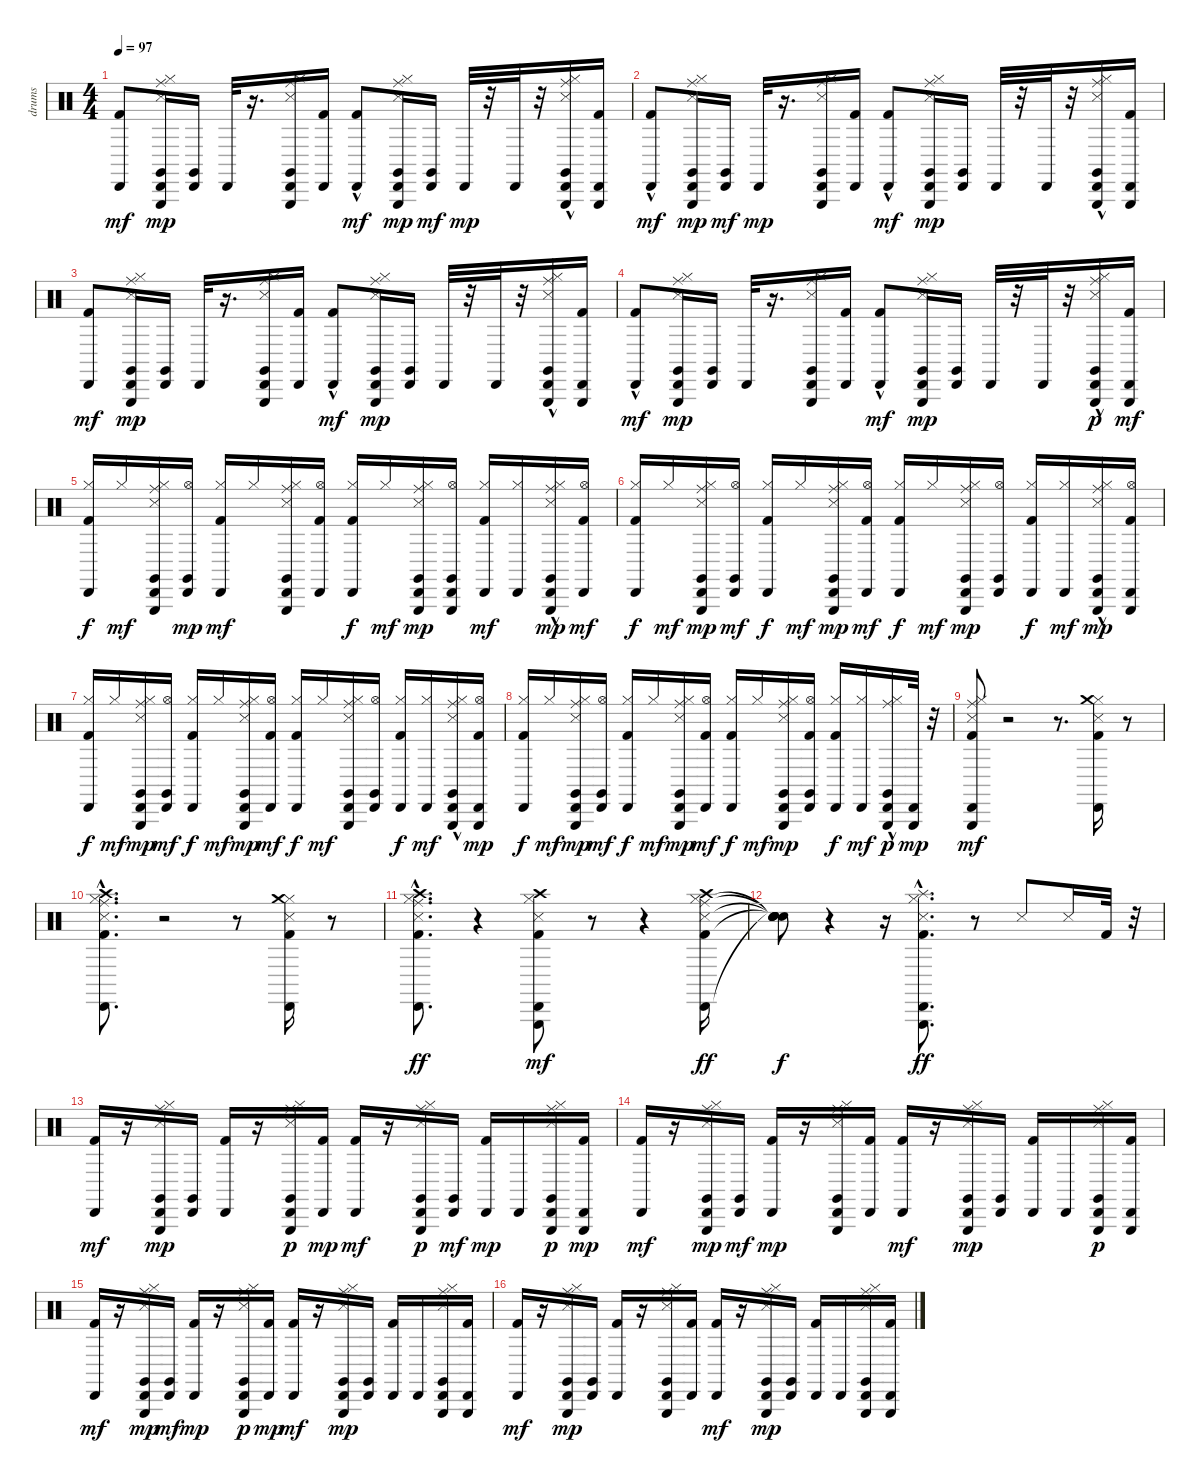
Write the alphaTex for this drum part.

\track ("drums" "drums") {instrument percussion}
\staff {score}
\articulation defaults
\ts (4 4)
\tempo 97
\clef neutral
\ks c
("Kick (hit) 2" "Cabasa (hit)").8{dy mf} ("Snare (side stick) 3" "Hi-Hat (closed)" "Cabasa (hit)" "Claves (hit)" "Ride (middle)" "Triangle (hit)").16{dy mp} ("Cabasa (hit)" "Claves (hit)").16 "Cabasa (hit)".32 r.16{d} ("Snare (side stick) 3" "Hi-Hat (closed)" "Cabasa (hit)" "Claves (hit)" "Ride (middle)" "Triangle (hit)").16 ("Kick (hit) 2" "Cabasa (hit)").16 ("Kick (hit) 2"{hac} "Cabasa (hit)").8{dy mf} ("Snare (side stick) 3" "Hi-Hat (closed)" "Cabasa (hit)" "Claves (hit)" "Ride (middle)" "Triangle (hit)").16{dy mp} ("Cabasa (hit)" "Claves (hit)").16{dy mf} "Cabasa (hit)".32{dy mp} r.32 "Cabasa (hit)".32 r.32 ("Snare (side stick) 3" "Hi-Hat (closed)" "Cabasa (hit)" "Claves (hit)" "Ride (middle)"{hac} "Triangle (hit)").16 ("Kick (hit) 2" "Cabasa (hit)" "Triangle (hit)").16 |
("Kick (hit) 2"{hac} "Cabasa (hit)").8{dy mf} ("Snare (side stick) 3" "Hi-Hat (closed)" "Cabasa (hit)" "Claves (hit)" "Ride (middle)" "Triangle (hit)").16{dy mp} ("Cabasa (hit)" "Claves (hit)").16{dy mf} "Cabasa (hit)".32{dy mp} r.16{d} ("Snare (side stick) 3" "Hi-Hat (closed)" "Cabasa (hit)" "Claves (hit)" "Ride (middle)" "Triangle (hit)").16 ("Kick (hit) 2" "Cabasa (hit)").16 ("Kick (hit) 2"{hac} "Cabasa (hit)").8{dy mf} ("Snare (side stick) 3" "Hi-Hat (closed)" "Cabasa (hit)" "Claves (hit)" "Ride (middle)" "Triangle (hit)").16{dy mp} ("Cabasa (hit)" "Claves (hit)").16 "Cabasa (hit)".32 r.32 "Cabasa (hit)".32 r.32 ("Snare (side stick) 3" "Hi-Hat (closed)" "Cabasa (hit)" "Claves (hit)" "Ride (middle)"{hac} "Triangle (hit)").16 ("Kick (hit) 2" "Cabasa (hit)" "Triangle (hit)").16 |
("Kick (hit) 2" "Cabasa (hit)").8{dy mf} ("Snare (side stick) 3" "Hi-Hat (closed)" "Cabasa (hit)" "Claves (hit)" "Ride (middle)" "Triangle (hit)").16{dy mp} ("Cabasa (hit)" "Claves (hit)").16 "Cabasa (hit)".32 r.16{d} ("Snare (side stick) 3" "Hi-Hat (closed)" "Cabasa (hit)" "Claves (hit)" "Ride (middle)" "Triangle (hit)").16 ("Kick (hit) 2" "Cabasa (hit)").16 ("Kick (hit) 2"{hac} "Cabasa (hit)").8{dy mf} ("Snare (side stick) 3" "Hi-Hat (closed)" "Cabasa (hit)" "Claves (hit)" "Ride (middle)" "Triangle (hit)").16{dy mp} ("Cabasa (hit)" "Claves (hit)").16 "Cabasa (hit)".32 r.32 "Cabasa (hit)".32 r.32 ("Snare (side stick) 3" "Hi-Hat (closed)" "Cabasa (hit)" "Claves (hit)" "Ride (middle)"{hac} "Triangle (hit)").16 ("Kick (hit) 2" "Cabasa (hit)" "Triangle (hit)").16 |
("Kick (hit) 2"{hac} "Cabasa (hit)").8{dy mf} ("Snare (side stick) 3" "Hi-Hat (closed)" "Cabasa (hit)" "Claves (hit)" "Ride (middle)" "Triangle (hit)").16{dy mp} ("Cabasa (hit)" "Claves (hit)").16 "Cabasa (hit)".32 r.16{d} ("Snare (side stick) 3" "Hi-Hat (closed)" "Cabasa (hit)" "Claves (hit)" "Ride (middle)" "Triangle (hit)").16 ("Kick (hit) 2" "Cabasa (hit)").16 ("Kick (hit) 2"{hac} "Cabasa (hit)").8{dy mf} ("Snare (side stick) 3" "Hi-Hat (closed)" "Cabasa (hit)" "Claves (hit)" "Ride (middle)" "Triangle (hit)").16{dy mp} ("Cabasa (hit)" "Claves (hit)").16 "Cabasa (hit)".32 r.32 "Cabasa (hit)".32 r.32 ("Snare (side stick) 3" "Hi-Hat (closed)" "Cabasa (hit)" "Claves (hit)" "Ride (middle)"{hac} "Triangle (hit)").16{dy p} ("Kick (hit) 2" "Cabasa (hit)" "Triangle (hit)").16{dy mf} |
("Kick (hit) 2" "Hi-Hat (closed)" "Cabasa (hit)").16{dy f} "Hi-Hat (closed)".16{dy mf} ("Snare (side stick) 3" "Hi-Hat (closed)" "Cabasa (hit)" "Claves (hit)" "Ride (middle)" "Triangle (hit)").16 ("Hi-Hat (open)" "Cabasa (hit)" "Claves (hit)").16{dy mp} ("Kick (hit) 2" "Hi-Hat (closed)" "Cabasa (hit)").16{dy mf} "Hi-Hat (closed)".16 ("Triangle (hit)" "Snare (side stick) 3" "Hi-Hat (closed)" "Cabasa (hit)" "Claves (hit)" "Ride (middle)").16 ("Kick (hit) 2" "Hi-Hat (open)" "Cabasa (hit)").16 ("Kick (hit) 2" "Hi-Hat (closed)" "Cabasa (hit)").16{dy f} "Hi-Hat (closed)".16{dy mf} ("Snare (side stick) 3" "Hi-Hat (closed)" "Cabasa (hit)" "Claves (hit)" "Ride (middle)" "Triangle (hit)").16{dy mp} ("Hi-Hat (open)" "Cabasa (hit)" "Claves (hit)" "Triangle (hit)").16 ("Kick (hit) 2" "Hi-Hat (closed)" "Cabasa (hit)").16{dy mf} ("Hi-Hat (closed)" "Cabasa (hit)").16 ("Snare (side stick) 3" "Hi-Hat (closed)" "Cabasa (hit)" "Claves (hit)" "Ride (middle)"{hac} "Triangle (hit)").16{dy mp} ("Kick (hit) 2" "Hi-Hat (open)" "Cabasa (hit)").16{dy mf} |
("Kick (hit) 2" "Hi-Hat (closed)" "Cabasa (hit)").16{dy f} "Hi-Hat (closed)".16{dy mf} ("Snare (side stick) 3" "Hi-Hat (closed)" "Cabasa (hit)" "Claves (hit)" "Ride (middle)" "Triangle (hit)").16{dy mp} ("Claves (hit)" "Hi-Hat (open)" "Cabasa (hit)").16{dy mf} ("Kick (hit) 2" "Hi-Hat (closed)" "Cabasa (hit)").16{dy f} "Hi-Hat (closed)".16{dy mf} ("Snare (side stick) 3" "Hi-Hat (closed)" "Cabasa (hit)" "Claves (hit)" "Ride (middle)" "Triangle (hit)").16{dy mp} ("Kick (hit) 2" "Hi-Hat (open)" "Cabasa (hit)").16{dy mf} ("Kick (hit) 2" "Hi-Hat (closed)" "Cabasa (hit)").16{dy f} "Hi-Hat (closed)".16{dy mf} ("Snare (side stick) 3" "Hi-Hat (closed)" "Cabasa (hit)" "Claves (hit)" "Ride (middle)" "Triangle (hit)").16{dy mp} ("Hi-Hat (open)" "Cabasa (hit)" "Claves (hit)").16 ("Kick (hit) 2" "Hi-Hat (closed)" "Cabasa (hit)").16{dy f} ("Hi-Hat (closed)" "Cabasa (hit)").16{dy mf} ("Snare (side stick) 3" "Hi-Hat (closed)" "Cabasa (hit)" "Claves (hit)" "Ride (middle)"{hac} "Triangle (hit)").16{dy mp} ("Kick (hit) 2" "Hi-Hat (open)" "Cabasa (hit)" "Triangle (hit)").16 |
("Kick (hit) 2" "Hi-Hat (closed)" "Cabasa (hit)").16{dy f} "Hi-Hat (closed)".16{dy mf} ("Snare (side stick) 3" "Hi-Hat (closed)" "Cabasa (hit)" "Claves (hit)" "Ride (middle)" "Triangle (hit)").16{dy mp} ("Hi-Hat (open)" "Cabasa (hit)" "Claves (hit)").16{dy mf} ("Kick (hit) 2" "Hi-Hat (closed)" "Cabasa (hit)").16{dy f} "Hi-Hat (closed)".16{dy mf} ("Snare (side stick) 3" "Hi-Hat (closed)" "Cabasa (hit)" "Claves (hit)" "Ride (middle)" "Triangle (hit)").16{dy mp} ("Kick (hit) 2" "Hi-Hat (open)" "Cabasa (hit)").16{dy mf} ("Kick (hit) 2" "Hi-Hat (closed)" "Cabasa (hit)").16{dy f} "Hi-Hat (closed)".16{dy mf} ("Triangle (hit)" "Snare (side stick) 3" "Hi-Hat (closed)" "Cabasa (hit)" "Claves (hit)" "Ride (middle)").16 ("Claves (hit)" "Hi-Hat (open)" "Cabasa (hit)").16 ("Kick (hit) 2" "Hi-Hat (closed)" "Cabasa (hit)").16{dy f} ("Hi-Hat (closed)" "Cabasa (hit)").16{dy mf} ("Snare (side stick) 3" "Hi-Hat (closed)" "Cabasa (hit)" "Claves (hit)" "Ride (middle)"{hac} "Triangle (hit)").16 ("Kick (hit) 2" "Hi-Hat (open)" "Cabasa (hit)" "Triangle (hit)").16{dy mp} |
("Kick (hit) 2" "Hi-Hat (closed)" "Cabasa (hit)").16{dy f} "Hi-Hat (closed)".16{dy mf} ("Claves (hit)" "Snare (side stick) 3" "Hi-Hat (closed)" "Cabasa (hit)" "Ride (middle)" "Triangle (hit)").16{dy mp} ("Claves (hit)" "Hi-Hat (open)" "Cabasa (hit)").16{dy mf} ("Kick (hit) 2" "Hi-Hat (closed)" "Cabasa (hit)").16{dy f} "Hi-Hat (closed)".16{dy mf} ("Snare (side stick) 3" "Hi-Hat (closed)" "Cabasa (hit)" "Claves (hit)" "Ride (middle)" "Triangle (hit)").16{dy mp} ("Kick (hit) 2" "Hi-Hat (open)" "Cabasa (hit)").16{dy mf} ("Kick (hit) 2" "Hi-Hat (closed)" "Cabasa (hit)").16{dy f} "Hi-Hat (closed)".16{dy mf} ("Snare (side stick) 3" "Hi-Hat (closed)" "Cabasa (hit)" "Claves (hit)" "Ride (middle)" "Triangle (hit)").16{dy mp} ("Kick (hit) 2" "Hi-Hat (open)" "Cabasa (hit)" "Claves (hit)").16 ("Kick (hit) 2" "Hi-Hat (closed)" "Cabasa (hit)").16{dy f} ("Hi-Hat (closed)" "Cabasa (hit)").16{dy mf} ("Claves (hit)" "Hi-Hat (closed)" "Cabasa (hit)" "Ride (middle)"{hac} "Triangle (hit)").16{dy p} ("Cabasa (hit)" "Triangle (hit)").32{dy mp} r.32 |
("Kick (hit) 2" "Snare (side stick) 3" "Hi-Hat (closed)" "Cabasa (hit)" "Ride (middle)" "Triangle (hit)").8{dy mf} r.2 r.8{d} ("Snare (side stick) 3" "Kick (hit) 2" "Hi-Hat (closed)" "Cabasa (hit)" "Crash medium (hit)").16 r.8 |
("Kick (hit) 2" "Snare (side stick) 3" "Hi-Hat (closed)" "Cabasa (hit)" "Ride (middle)" "Crash high (hit)"{hac}).8{d} r.2 r.8 ("Kick (hit) 2" "Snare (side stick) 3" "Hi-Hat (closed)" "Cabasa (hit)" "Crash medium (hit)").16 r.8 |
("Kick (hit) 2" "Snare (side stick) 3" "Hi-Hat (closed)" "Cabasa (hit)" "Ride (middle)" "Crash high (hit)"{hac}).8{d dy ff} r.4 ("Kick (hit) 2" "Snare (side stick) 3" "Hi-Hat (closed)" "Cabasa (hit)" "Crash high (hit)" "Triangle (hit)").8{dy mf} r.8 r.4 ("Ride (middle)" "Kick (hit) 2" "Snare (side stick) 3" "Hi-Hat (closed)" "Cabasa (hit)" "Crash high (hit)").16{dy ff} |
("Snare (hit)"{t} "Snare (hit)"{t} "Snare (hit)"{t} "Snare (hit)"{t} "Snare (hit)"{t}).8{dy f} r.4 r.16 ("Kick (hit) 2"{hac} "Snare (side stick) 3" "Hi-Hat (closed)" "Cabasa (hit)" "Splash (hit)"{hac} "Triangle (hit)").8{d dy ff} r.8 "Snare (side stick) 3".8 "Snare (side stick) 3".16 "Kick (hit) 2".32 r.32 |
("Kick (hit) 2" "Cabasa (hit)").16{dy mf} r.16 ("Snare (side stick) 3" "Hi-Hat (closed)" "Cabasa (hit)" "Claves (hit)" "Ride (middle)" "Triangle (hit)").16{dy mp} ("Cabasa (hit)" "Claves (hit)").16 ("Kick (hit) 2" "Cabasa (hit)").16 r.16 ("Snare (side stick) 3" "Hi-Hat (closed)" "Cabasa (hit)" "Claves (hit)" "Ride (middle)" "Triangle (hit)").16{dy p} ("Kick (hit) 2" "Cabasa (hit)").16{dy mp} ("Kick (hit) 2" "Cabasa (hit)").16{dy mf} r.16 ("Snare (side stick) 3" "Hi-Hat (closed)" "Cabasa (hit)" "Claves (hit)" "Ride (middle)" "Triangle (hit)").16{dy p} ("Cabasa (hit)" "Claves (hit)").16{dy mf} ("Kick (hit) 2" "Cabasa (hit)").16{dy mp} "Cabasa (hit)".16 ("Snare (side stick) 3" "Hi-Hat (closed)" "Cabasa (hit)" "Claves (hit)" "Ride (middle)" "Triangle (hit)").16{dy p} ("Kick (hit) 2" "Cabasa (hit)" "Triangle (hit)").16{dy mp} |
("Kick (hit) 2" "Cabasa (hit)").16{dy mf} r.16 ("Snare (side stick) 3" "Hi-Hat (closed)" "Cabasa (hit)" "Claves (hit)" "Ride (middle)" "Triangle (hit)").16{dy mp} ("Cabasa (hit)" "Claves (hit)").16{dy mf} ("Kick (hit) 2" "Cabasa (hit)").16{dy mp} r.16 ("Snare (side stick) 3" "Hi-Hat (closed)" "Cabasa (hit)" "Claves (hit)" "Ride (middle)" "Triangle (hit)").16 ("Kick (hit) 2" "Cabasa (hit)").16 ("Kick (hit) 2" "Cabasa (hit)").16{dy mf} r.16 ("Snare (side stick) 3" "Hi-Hat (closed)" "Cabasa (hit)" "Claves (hit)" "Ride (middle)" "Triangle (hit)").16{dy mp} ("Cabasa (hit)" "Claves (hit)").16 ("Kick (hit) 2" "Cabasa (hit)").16 "Cabasa (hit)".16 ("Snare (side stick) 3" "Hi-Hat (closed)" "Cabasa (hit)" "Claves (hit)" "Ride (middle)" "Triangle (hit)").16{dy p} ("Kick (hit) 2" "Cabasa (hit)" "Triangle (hit)").16 |
("Kick (hit) 2" "Cabasa (hit)").16{dy mf} r.16 ("Snare (side stick) 3" "Hi-Hat (closed)" "Cabasa (hit)" "Claves (hit)" "Ride (middle)" "Triangle (hit)").16{dy mp} ("Cabasa (hit)" "Claves (hit)").16{dy mf} ("Kick (hit) 2" "Cabasa (hit)").16{dy mp} r.16 ("Snare (side stick) 3" "Hi-Hat (closed)" "Cabasa (hit)" "Claves (hit)" "Ride (middle)" "Triangle (hit)").16{dy p} ("Kick (hit) 2" "Cabasa (hit)").16{dy mp} ("Kick (hit) 2" "Cabasa (hit)").16{dy mf} r.16 ("Snare (side stick) 3" "Hi-Hat (closed)" "Cabasa (hit)" "Claves (hit)" "Ride (middle)" "Triangle (hit)").16{dy mp} ("Cabasa (hit)" "Claves (hit)").16 ("Kick (hit) 2" "Cabasa (hit)").16 "Cabasa (hit)".16 ("Snare (side stick) 3" "Hi-Hat (closed)" "Cabasa (hit)" "Claves (hit)" "Ride (middle)" "Triangle (hit)").16 ("Kick (hit) 2" "Cabasa (hit)" "Triangle (hit)").16 |
("Kick (hit) 2" "Cabasa (hit)").16{dy mf} r.16 ("Snare (side stick) 3" "Hi-Hat (closed)" "Cabasa (hit)" "Claves (hit)" "Ride (middle)" "Triangle (hit)").16{dy mp} ("Cabasa (hit)" "Claves (hit)").16 ("Kick (hit) 2" "Cabasa (hit)").16 r.16 ("Snare (side stick) 3" "Hi-Hat (closed)" "Cabasa (hit)" "Claves (hit)" "Ride (middle)" "Triangle (hit)").16 ("Kick (hit) 2" "Cabasa (hit)").16 ("Kick (hit) 2" "Cabasa (hit)").16{dy mf} r.16 ("Snare (side stick) 3" "Hi-Hat (closed)" "Cabasa (hit)" "Claves (hit)" "Ride (middle)" "Triangle (hit)").16{dy mp} ("Cabasa (hit)" "Claves (hit)").16 ("Kick (hit) 2" "Cabasa (hit)").16 "Cabasa (hit)".16 ("Snare (side stick) 3" "Hi-Hat (closed)" "Cabasa (hit)" "Claves (hit)" "Ride (middle)" "Triangle (hit)").16 ("Kick (hit) 2" "Cabasa (hit)" "Triangle (hit)").16
